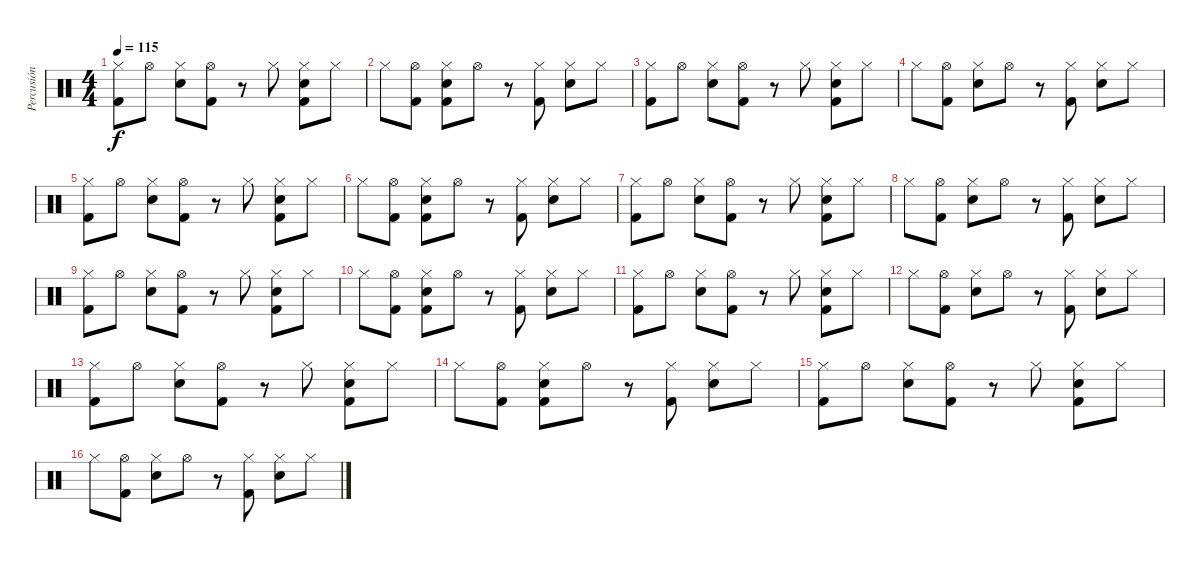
\track ("Percusión" "Percusión") {instrument percussion}
\staff {score}
\articulation defaults
\ts (4 4)
\tempo 115
\clef neutral
\ks c
("Hi-Hat (closed)" "Kick (hit) 2").8{dy f} "Hi-Hat (open)".8 ("Hi-Hat (closed)" "Electric Snare (hit)").8 ("Hi-Hat (open)" "Kick (hit) 2").8 r.8 "Hi-Hat (closed)".8 ("Hi-Hat (closed)" "Electric Snare (hit)" "Kick (hit) 2").8 "Hi-Hat (closed)".8 |
"Hi-Hat (closed)".8 ("Hi-Hat (open)" "Kick (hit) 2").8 ("Hi-Hat (closed)" "Electric Snare (hit)" "Kick (hit) 2").8 "Hi-Hat (open)".8 r.8 ("Hi-Hat (closed)" "Kick (hit) 2").8 ("Hi-Hat (closed)" "Electric Snare (hit)").8 "Hi-Hat (closed)".8 |
("Hi-Hat (closed)" "Kick (hit) 2").8 "Hi-Hat (open)".8 ("Hi-Hat (closed)" "Electric Snare (hit)").8 ("Hi-Hat (open)" "Kick (hit) 2").8 r.8 "Hi-Hat (closed)".8 ("Hi-Hat (closed)" "Electric Snare (hit)" "Kick (hit) 2").8 "Hi-Hat (closed)".8 |
"Hi-Hat (closed)".8 ("Hi-Hat (open)" "Kick (hit) 2").8 ("Hi-Hat (closed)" "Electric Snare (hit)").8 "Hi-Hat (open)".8 r.8 ("Hi-Hat (closed)" "Kick (hit) 2").8 ("Hi-Hat (closed)" "Electric Snare (hit)").8 "Hi-Hat (closed)".8 |
("Hi-Hat (closed)" "Kick (hit) 2").8 "Hi-Hat (open)".8 ("Hi-Hat (closed)" "Electric Snare (hit)").8 ("Hi-Hat (open)" "Kick (hit) 2").8 r.8 "Hi-Hat (closed)".8 ("Hi-Hat (closed)" "Electric Snare (hit)" "Kick (hit) 2").8 "Hi-Hat (closed)".8 |
"Hi-Hat (closed)".8 ("Hi-Hat (open)" "Kick (hit) 2").8 ("Hi-Hat (closed)" "Electric Snare (hit)" "Kick (hit) 2").8 "Hi-Hat (open)".8 r.8 ("Hi-Hat (closed)" "Kick (hit) 2").8 ("Hi-Hat (closed)" "Electric Snare (hit)").8 "Hi-Hat (closed)".8 |
("Hi-Hat (closed)" "Kick (hit) 2").8 "Hi-Hat (open)".8 ("Hi-Hat (closed)" "Electric Snare (hit)").8 ("Hi-Hat (open)" "Kick (hit) 2").8 r.8 "Hi-Hat (closed)".8 ("Hi-Hat (closed)" "Electric Snare (hit)" "Kick (hit) 2").8 "Hi-Hat (closed)".8 |
"Hi-Hat (closed)".8 ("Hi-Hat (open)" "Kick (hit) 2").8 ("Hi-Hat (closed)" "Electric Snare (hit)").8 "Hi-Hat (open)".8 r.8 ("Hi-Hat (closed)" "Kick (hit) 2").8 ("Hi-Hat (closed)" "Electric Snare (hit)").8 "Hi-Hat (closed)".8 |
("Hi-Hat (closed)" "Kick (hit) 2").8 "Hi-Hat (open)".8 ("Hi-Hat (closed)" "Electric Snare (hit)").8 ("Hi-Hat (open)" "Kick (hit) 2").8 r.8 "Hi-Hat (closed)".8 ("Hi-Hat (closed)" "Electric Snare (hit)" "Kick (hit) 2").8 "Hi-Hat (closed)".8 |
"Hi-Hat (closed)".8 ("Hi-Hat (open)" "Kick (hit) 2").8 ("Hi-Hat (closed)" "Electric Snare (hit)" "Kick (hit) 2").8 "Hi-Hat (open)".8 r.8 ("Hi-Hat (closed)" "Kick (hit) 2").8 ("Hi-Hat (closed)" "Electric Snare (hit)").8 "Hi-Hat (closed)".8 |
("Hi-Hat (closed)" "Kick (hit) 2").8 "Hi-Hat (open)".8 ("Hi-Hat (closed)" "Electric Snare (hit)").8 ("Hi-Hat (open)" "Kick (hit) 2").8 r.8 "Hi-Hat (closed)".8 ("Hi-Hat (closed)" "Electric Snare (hit)" "Kick (hit) 2").8 "Hi-Hat (closed)".8 |
"Hi-Hat (closed)".8 ("Hi-Hat (open)" "Kick (hit) 2").8 ("Hi-Hat (closed)" "Electric Snare (hit)").8 "Hi-Hat (open)".8 r.8 ("Hi-Hat (closed)" "Kick (hit) 2").8 ("Hi-Hat (closed)" "Electric Snare (hit)").8 "Hi-Hat (closed)".8 |
("Hi-Hat (closed)" "Kick (hit) 2").8 "Hi-Hat (open)".8 ("Hi-Hat (closed)" "Electric Snare (hit)").8 ("Hi-Hat (open)" "Kick (hit) 2").8 r.8 "Hi-Hat (closed)".8 ("Hi-Hat (closed)" "Electric Snare (hit)" "Kick (hit) 2").8 "Hi-Hat (closed)".8 |
"Hi-Hat (closed)".8 ("Hi-Hat (open)" "Kick (hit) 2").8 ("Hi-Hat (closed)" "Electric Snare (hit)" "Kick (hit) 2").8 "Hi-Hat (open)".8 r.8 ("Hi-Hat (closed)" "Kick (hit) 2").8 ("Hi-Hat (closed)" "Electric Snare (hit)").8 "Hi-Hat (closed)".8 |
("Hi-Hat (closed)" "Kick (hit) 2").8 "Hi-Hat (open)".8 ("Hi-Hat (closed)" "Electric Snare (hit)").8 ("Hi-Hat (open)" "Kick (hit) 2").8 r.8 "Hi-Hat (closed)".8 ("Hi-Hat (closed)" "Electric Snare (hit)" "Kick (hit) 2").8 "Hi-Hat (closed)".8 |
"Hi-Hat (closed)".8 ("Hi-Hat (open)" "Kick (hit) 2").8 ("Hi-Hat (closed)" "Electric Snare (hit)").8 "Hi-Hat (open)".8 r.8 ("Hi-Hat (closed)" "Kick (hit) 2").8 ("Hi-Hat (closed)" "Electric Snare (hit)").8 "Hi-Hat (closed)".8
